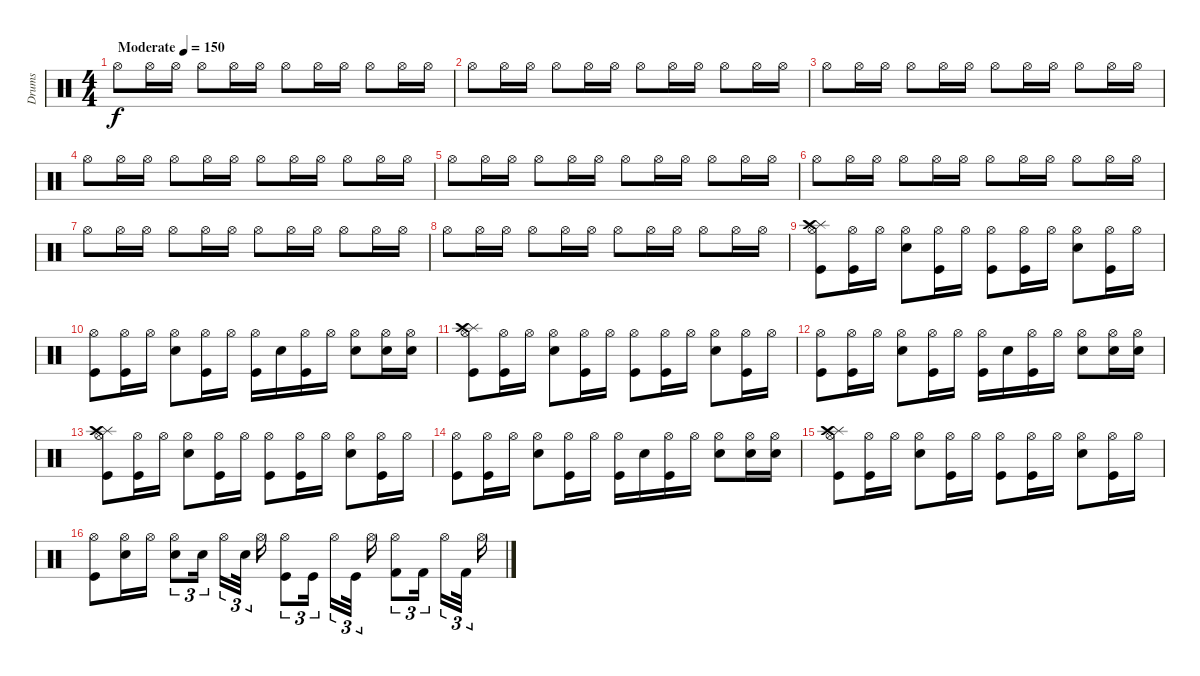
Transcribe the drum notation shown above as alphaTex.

\track ("Drums" "Drums") {instrument percussion}
\staff {score}
\articulation defaults
\ts (4 4)
\tempo (150 "Moderate")
\clef neutral
\ks c "Hi-Hat (open)".8{dy f} "Hi-Hat (open)".16 "Hi-Hat (open)".16 "Hi-Hat (open)".8 "Hi-Hat (open)".16 "Hi-Hat (open)".16 "Hi-Hat (open)".8 "Hi-Hat (open)".16 "Hi-Hat (open)".16 "Hi-Hat (open)".8 "Hi-Hat (open)".16 "Hi-Hat (open)".16
|
"Hi-Hat (open)".8 "Hi-Hat (open)".16 "Hi-Hat (open)".16 "Hi-Hat (open)".8 "Hi-Hat (open)".16 "Hi-Hat (open)".16 "Hi-Hat (open)".8 "Hi-Hat (open)".16 "Hi-Hat (open)".16 "Hi-Hat (open)".8 "Hi-Hat (open)".16 "Hi-Hat (open)".16 |
"Hi-Hat (open)".8 "Hi-Hat (open)".16 "Hi-Hat (open)".16 "Hi-Hat (open)".8 "Hi-Hat (open)".16 "Hi-Hat (open)".16 "Hi-Hat (open)".8 "Hi-Hat (open)".16 "Hi-Hat (open)".16 "Hi-Hat (open)".8 "Hi-Hat (open)".16 "Hi-Hat (open)".16 |
"Hi-Hat (open)".8 "Hi-Hat (open)".16 "Hi-Hat (open)".16 "Hi-Hat (open)".8 "Hi-Hat (open)".16 "Hi-Hat (open)".16 "Hi-Hat (open)".8 "Hi-Hat (open)".16 "Hi-Hat (open)".16 "Hi-Hat (open)".8 "Hi-Hat (open)".16 "Hi-Hat (open)".16 |
"Hi-Hat (open)".8 "Hi-Hat (open)".16 "Hi-Hat (open)".16 "Hi-Hat (open)".8 "Hi-Hat (open)".16 "Hi-Hat (open)".16 "Hi-Hat (open)".8 "Hi-Hat (open)".16 "Hi-Hat (open)".16 "Hi-Hat (open)".8 "Hi-Hat (open)".16 "Hi-Hat (open)".16 |
"Hi-Hat (open)".8 "Hi-Hat (open)".16 "Hi-Hat (open)".16 "Hi-Hat (open)".8 "Hi-Hat (open)".16 "Hi-Hat (open)".16 "Hi-Hat (open)".8 "Hi-Hat (open)".16 "Hi-Hat (open)".16 "Hi-Hat (open)".8 "Hi-Hat (open)".16 "Hi-Hat (open)".16 |
"Hi-Hat (open)".8 "Hi-Hat (open)".16 "Hi-Hat (open)".16 "Hi-Hat (open)".8 "Hi-Hat (open)".16 "Hi-Hat (open)".16 "Hi-Hat (open)".8 "Hi-Hat (open)".16 "Hi-Hat (open)".16 "Hi-Hat (open)".8 "Hi-Hat (open)".16 "Hi-Hat (open)".16 |
"Hi-Hat (open)".8 "Hi-Hat (open)".16 "Hi-Hat (open)".16 "Hi-Hat (open)".8 "Hi-Hat (open)".16 "Hi-Hat (open)".16 "Hi-Hat (open)".8 "Hi-Hat (open)".16 "Hi-Hat (open)".16 "Hi-Hat (open)".8 "Hi-Hat (open)".16 "Hi-Hat (open)".16 |
("Splash (hit)" "Crash high (hit)" "Hi-Hat (open)" "Kick (hit)").8 ("Hi-Hat (open)" "Kick (hit)").16 "Hi-Hat (open)".16 ("Hi-Hat (open)" "Electric Snare (hit)").8 ("Hi-Hat (open)" "Kick (hit)").16 "Hi-Hat (open)".16 ("Hi-Hat (open)" "Kick (hit)").8 ("Hi-Hat (open)" "Kick (hit)").16 "Hi-Hat (open)".16 ("Hi-Hat (open)" "Electric Snare (hit)").8 ("Hi-Hat (open)" "Kick (hit)").16 "Hi-Hat (open)".16 |
("Hi-Hat (open)" "Kick (hit)").8 ("Hi-Hat (open)" "Kick (hit)").16 "Hi-Hat (open)".16 ("Hi-Hat (open)" "Electric Snare (hit)").8 ("Hi-Hat (open)" "Kick (hit)").16 "Hi-Hat (open)".16 ("Hi-Hat (open)" "Kick (hit)").16 "Electric Snare (hit)".16 ("Hi-Hat (open)" "Kick (hit)").16 "Hi-Hat (open)".16 ("Hi-Hat (open)" "Electric Snare (hit)").8 ("Hi-Hat (open)" "Electric Snare (hit)").16 ("Hi-Hat (open)" "Electric Snare (hit)").16 |
("Splash (hit)" "Crash high (hit)" "Hi-Hat (open)" "Kick (hit)").8 ("Hi-Hat (open)" "Kick (hit)").16 "Hi-Hat (open)".16 ("Hi-Hat (open)" "Electric Snare (hit)").8 ("Hi-Hat (open)" "Kick (hit)").16 "Hi-Hat (open)".16 ("Hi-Hat (open)" "Kick (hit)").8 ("Hi-Hat (open)" "Kick (hit)").16 "Hi-Hat (open)".16 ("Hi-Hat (open)" "Electric Snare (hit)").8 ("Hi-Hat (open)" "Kick (hit)").16 "Hi-Hat (open)".16 |
("Hi-Hat (open)" "Kick (hit)").8 ("Hi-Hat (open)" "Kick (hit)").16 "Hi-Hat (open)".16 ("Hi-Hat (open)" "Electric Snare (hit)").8 ("Hi-Hat (open)" "Kick (hit)").16 "Hi-Hat (open)".16 ("Hi-Hat (open)" "Kick (hit)").16 "Electric Snare (hit)".16 ("Hi-Hat (open)" "Kick (hit)").16 "Hi-Hat (open)".16 ("Hi-Hat (open)" "Electric Snare (hit)").8 ("Hi-Hat (open)" "Electric Snare (hit)").16 ("Hi-Hat (open)" "Electric Snare (hit)").16 |
("Splash (hit)" "Crash high (hit)" "Hi-Hat (open)" "Kick (hit)").8 ("Hi-Hat (open)" "Kick (hit)").16 "Hi-Hat (open)".16 ("Hi-Hat (open)" "Electric Snare (hit)").8 ("Hi-Hat (open)" "Kick (hit)").16 "Hi-Hat (open)".16 ("Hi-Hat (open)" "Kick (hit)").8 ("Hi-Hat (open)" "Kick (hit)").16 "Hi-Hat (open)".16 ("Hi-Hat (open)" "Electric Snare (hit)").8 ("Hi-Hat (open)" "Kick (hit)").16 "Hi-Hat (open)".16 |
("Hi-Hat (open)" "Kick (hit)").8 ("Hi-Hat (open)" "Kick (hit)").16 "Hi-Hat (open)".16 ("Hi-Hat (open)" "Electric Snare (hit)").8 ("Hi-Hat (open)" "Kick (hit)").16 "Hi-Hat (open)".16 ("Hi-Hat (open)" "Kick (hit)").16 "Electric Snare (hit)".16 ("Hi-Hat (open)" "Kick (hit)").16 "Hi-Hat (open)".16 ("Hi-Hat (open)" "Electric Snare (hit)").8 ("Hi-Hat (open)" "Electric Snare (hit)").16 ("Hi-Hat (open)" "Electric Snare (hit)").16 |
("Splash (hit)" "Crash high (hit)" "Hi-Hat (open)" "Kick (hit)").8 ("Hi-Hat (open)" "Kick (hit)").16 "Hi-Hat (open)".16 ("Hi-Hat (open)" "Electric Snare (hit)").8 ("Hi-Hat (open)" "Kick (hit)").16 "Hi-Hat (open)".16 ("Hi-Hat (open)" "Kick (hit)").8 ("Hi-Hat (open)" "Kick (hit)").16 "Hi-Hat (open)".16 ("Hi-Hat (open)" "Electric Snare (hit)").8 ("Hi-Hat (open)" "Kick (hit)").16 "Hi-Hat (open)".16 |
("Hi-Hat (open)" "Kick (hit)").8 ("Hi-Hat (open)" "Electric Snare (hit)").16 "Hi-Hat (open)".16 ("Hi-Hat (open)" "Snare (hit) 2").8{tu (3 2)} "Snare (hit) 2".16{tu (3 2)} "Hi-Hat (open)".16{tu (3 2)} "Snare (hit) 2".32{tu (3 2)} "Hi-Hat (open)".16 ("Hi-Hat (open)" "Kick (hit)").8{tu (3 2)} "Kick (hit)".16{tu (3 2)} "Hi-Hat (open)".16{tu (3 2)} "Kick (hit)".32{tu (3 2)} "Hi-Hat (open)".16 ("Hi-Hat (open)" "Kick (hit) 2").8{tu (3 2)} "Kick (hit) 2".16{tu (3 2)} "Hi-Hat (open)".16{tu (3 2)} "Kick (hit) 2".32{tu (3 2)} "Hi-Hat (open)".16
